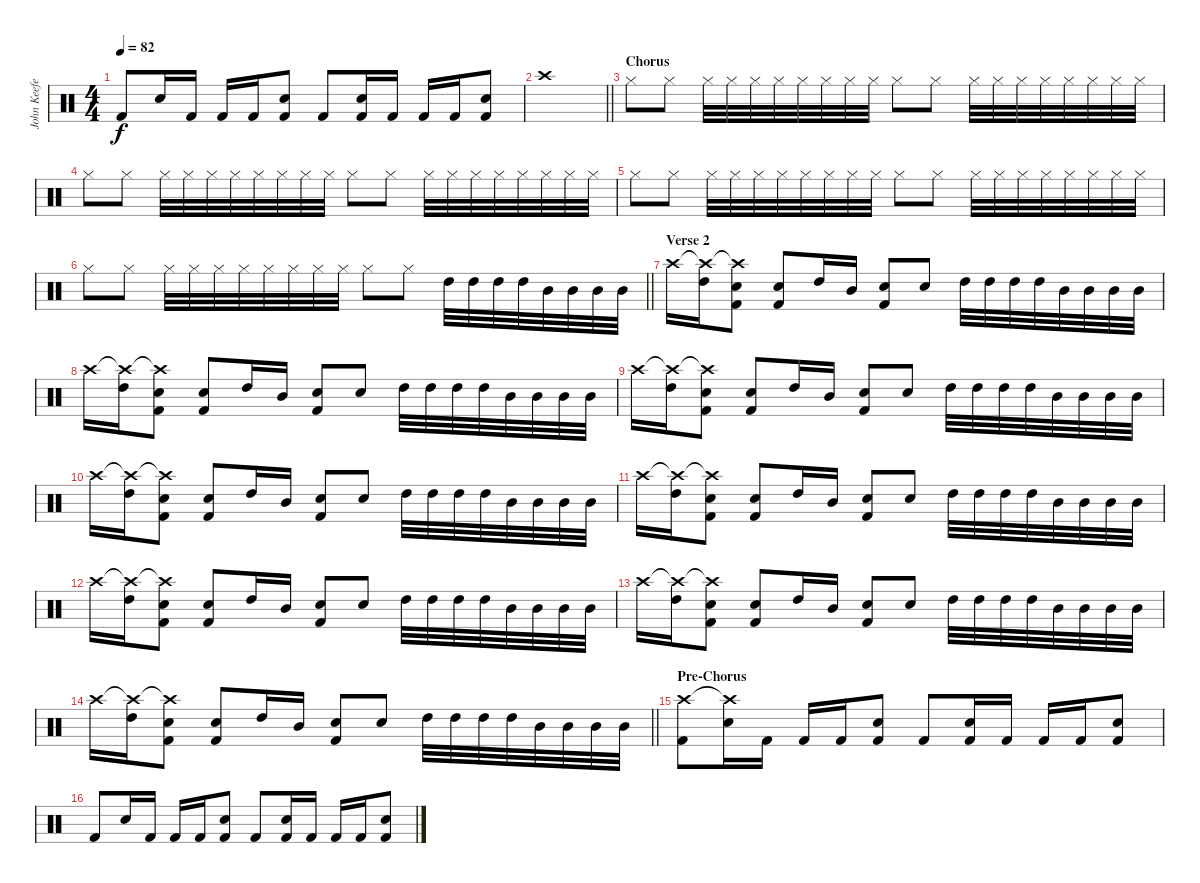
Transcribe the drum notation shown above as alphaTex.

\track ("John Keefe (Percussion)" "John Keefe") {instrument percussion}
\staff {score}
\articulation defaults
\ts (4 4)
\tempo 82
\clef neutral
\ks c "Kick (hit) 2".8{dy f} "Snare (hit) 2".16 "Kick (hit) 2".16 "Kick (hit) 2".16 "Kick (hit) 2".16
("Snare (hit) 2" "Kick (hit) 2").8 "Kick (hit) 2".8 ("Snare (hit) 2" "Kick (hit) 2").16 "Kick (hit) 2".16 "Kick (hit) 2".16 "Kick (hit) 2".16 ("Snare (hit) 2" "Kick (hit) 2").8 |
\barLineRight lightlight "Crash high (hit)".1
|
\section ("" "Chorus")
"Hi-Hat (closed)".8 "Hi-Hat (closed)".8 "Hi-Hat (closed)".32 "Hi-Hat (closed)".32 "Hi-Hat (closed)".32 "Hi-Hat (closed)".32 "Hi-Hat (closed)".32 "Hi-Hat (closed)".32 "Hi-Hat (closed)".32 "Hi-Hat (closed)".32 "Hi-Hat (closed)".8 "Hi-Hat (closed)".8 "Hi-Hat (closed)".32 "Hi-Hat (closed)".32 "Hi-Hat (closed)".32 "Hi-Hat (closed)".32 "Hi-Hat (closed)".32 "Hi-Hat (closed)".32 "Hi-Hat (closed)".32 "Hi-Hat (closed)".32 |
"Hi-Hat (closed)".8 "Hi-Hat (closed)".8 "Hi-Hat (closed)".32 "Hi-Hat (closed)".32 "Hi-Hat (closed)".32 "Hi-Hat (closed)".32 "Hi-Hat (closed)".32 "Hi-Hat (closed)".32 "Hi-Hat (closed)".32 "Hi-Hat (closed)".32 "Hi-Hat (closed)".8 "Hi-Hat (closed)".8 "Hi-Hat (closed)".32 "Hi-Hat (closed)".32 "Hi-Hat (closed)".32 "Hi-Hat (closed)".32 "Hi-Hat (closed)".32 "Hi-Hat (closed)".32 "Hi-Hat (closed)".32 "Hi-Hat (closed)".32 |
"Hi-Hat (closed)".8 "Hi-Hat (closed)".8 "Hi-Hat (closed)".32 "Hi-Hat (closed)".32 "Hi-Hat (closed)".32 "Hi-Hat (closed)".32 "Hi-Hat (closed)".32 "Hi-Hat (closed)".32 "Hi-Hat (closed)".32 "Hi-Hat (closed)".32 "Hi-Hat (closed)".8 "Hi-Hat (closed)".8 "Hi-Hat (closed)".32 "Hi-Hat (closed)".32 "Hi-Hat (closed)".32 "Hi-Hat (closed)".32 "Hi-Hat (closed)".32 "Hi-Hat (closed)".32 "Hi-Hat (closed)".32 "Hi-Hat (closed)".32 |
\barLineRight lightlight "Hi-Hat (closed)".8 "Hi-Hat (closed)".8 "Hi-Hat (closed)".32 "Hi-Hat (closed)".32 "Hi-Hat (closed)".32 "Hi-Hat (closed)".32 "Hi-Hat (closed)".32 "Hi-Hat (closed)".32 "Hi-Hat (closed)".32 "Hi-Hat (closed)".32 "Hi-Hat (closed)".8 "Hi-Hat (closed)".8 "High Tom (hit)".32 "High Tom (hit)".32 "High Tom (hit)".32 "High Tom (hit)".32 "Mid Tom (hit)".32 "Mid Tom (hit)".32 "Mid Tom (hit)".32 "Mid Tom (hit)".32
|
\section ("" "Verse 2")
"Crash high (hit)".16 ("Crash high (hit)"{t} "High Tom (hit)").16 ("Crash high (hit)"{t} "Snare (hit) 2" "Kick (hit) 2").8 ("Snare (hit) 2" "Kick (hit) 2").8 "High Tom (hit)".16 "Mid Tom (hit)".16 ("Snare (hit) 2" "Kick (hit) 2").8 "Snare (hit) 2".8 "High Tom (hit)".32 "High Tom (hit)".32 "High Tom (hit)".32 "High Tom (hit)".32 "Mid Tom (hit)".32 "Mid Tom (hit)".32 "Mid Tom (hit)".32 "Mid Tom (hit)".32 |
"Crash high (hit)".16 ("Crash high (hit)"{t} "High Tom (hit)").16 ("Crash high (hit)"{t} "Snare (hit) 2" "Kick (hit) 2").8 ("Snare (hit) 2" "Kick (hit) 2").8 "High Tom (hit)".16 "Mid Tom (hit)".16 ("Snare (hit) 2" "Kick (hit) 2").8 "Snare (hit) 2".8 "High Tom (hit)".32 "High Tom (hit)".32 "High Tom (hit)".32 "High Tom (hit)".32 "Mid Tom (hit)".32 "Mid Tom (hit)".32 "Mid Tom (hit)".32 "Mid Tom (hit)".32 |
"Crash high (hit)".16 ("Crash high (hit)"{t} "High Tom (hit)").16 ("Crash high (hit)"{t} "Snare (hit) 2" "Kick (hit) 2").8 ("Snare (hit) 2" "Kick (hit) 2").8 "High Tom (hit)".16 "Mid Tom (hit)".16 ("Snare (hit) 2" "Kick (hit) 2").8 "Snare (hit) 2".8 "High Tom (hit)".32 "High Tom (hit)".32 "High Tom (hit)".32 "High Tom (hit)".32 "Mid Tom (hit)".32 "Mid Tom (hit)".32 "Mid Tom (hit)".32 "Mid Tom (hit)".32 |
"Crash high (hit)".16 ("Crash high (hit)"{t} "High Tom (hit)").16 ("Crash high (hit)"{t} "Snare (hit) 2" "Kick (hit) 2").8 ("Snare (hit) 2" "Kick (hit) 2").8 "High Tom (hit)".16 "Mid Tom (hit)".16 ("Snare (hit) 2" "Kick (hit) 2").8 "Snare (hit) 2".8 "High Tom (hit)".32 "High Tom (hit)".32 "High Tom (hit)".32 "High Tom (hit)".32 "Mid Tom (hit)".32 "Mid Tom (hit)".32 "Mid Tom (hit)".32 "Mid Tom (hit)".32 |
"Crash high (hit)".16 ("Crash high (hit)"{t} "High Tom (hit)").16 ("Crash high (hit)"{t} "Snare (hit) 2" "Kick (hit) 2").8 ("Snare (hit) 2" "Kick (hit) 2").8 "High Tom (hit)".16 "Mid Tom (hit)".16 ("Snare (hit) 2" "Kick (hit) 2").8 "Snare (hit) 2".8 "High Tom (hit)".32 "High Tom (hit)".32 "High Tom (hit)".32 "High Tom (hit)".32 "Mid Tom (hit)".32 "Mid Tom (hit)".32 "Mid Tom (hit)".32 "Mid Tom (hit)".32 |
"Crash high (hit)".16 ("Crash high (hit)"{t} "High Tom (hit)").16 ("Crash high (hit)"{t} "Snare (hit) 2" "Kick (hit) 2").8 ("Snare (hit) 2" "Kick (hit) 2").8 "High Tom (hit)".16 "Mid Tom (hit)".16 ("Snare (hit) 2" "Kick (hit) 2").8 "Snare (hit) 2".8 "High Tom (hit)".32 "High Tom (hit)".32 "High Tom (hit)".32 "High Tom (hit)".32 "Mid Tom (hit)".32 "Mid Tom (hit)".32 "Mid Tom (hit)".32 "Mid Tom (hit)".32 |
"Crash high (hit)".16 ("Crash high (hit)"{t} "High Tom (hit)").16 ("Crash high (hit)"{t} "Snare (hit) 2" "Kick (hit) 2").8 ("Snare (hit) 2" "Kick (hit) 2").8 "High Tom (hit)".16 "Mid Tom (hit)".16 ("Snare (hit) 2" "Kick (hit) 2").8 "Snare (hit) 2".8 "High Tom (hit)".32 "High Tom (hit)".32 "High Tom (hit)".32 "High Tom (hit)".32 "Mid Tom (hit)".32 "Mid Tom (hit)".32 "Mid Tom (hit)".32 "Mid Tom (hit)".32 |
\barLineRight lightlight "Crash high (hit)".16
("Crash high (hit)"{t} "High Tom (hit)").16 ("Crash high (hit)"{t} "Snare (hit) 2" "Kick (hit) 2").8 ("Snare (hit) 2" "Kick (hit) 2").8 "High Tom (hit)".16 "Mid Tom (hit)".16 ("Snare (hit) 2" "Kick (hit) 2").8 "Snare (hit) 2".8 "High Tom (hit)".32 "High Tom (hit)".32 "High Tom (hit)".32 "High Tom (hit)".32 "Mid Tom (hit)".32 "Mid Tom (hit)".32 "Mid Tom (hit)".32 "Mid Tom (hit)".32 |
\section ("" "Pre-Chorus")
("Crash high (hit)" "Kick (hit) 2").8 ("Crash high (hit)"{t} "Snare (hit) 2").16 "Kick (hit) 2".16 "Kick (hit) 2".16 "Kick (hit) 2".16 ("Snare (hit) 2" "Kick (hit) 2").8 "Kick (hit) 2".8 ("Snare (hit) 2" "Kick (hit) 2").16 "Kick (hit) 2".16 "Kick (hit) 2".16 "Kick (hit) 2".16 ("Snare (hit) 2" "Kick (hit) 2").8 |
"Kick (hit) 2".8 "Snare (hit) 2".16 "Kick (hit) 2".16 "Kick (hit) 2".16 "Kick (hit) 2".16 ("Snare (hit) 2" "Kick (hit) 2").8 "Kick (hit) 2".8 ("Snare (hit) 2" "Kick (hit) 2").16 "Kick (hit) 2".16 "Kick (hit) 2".16 "Kick (hit) 2".16 ("Snare (hit) 2" "Kick (hit) 2").8
